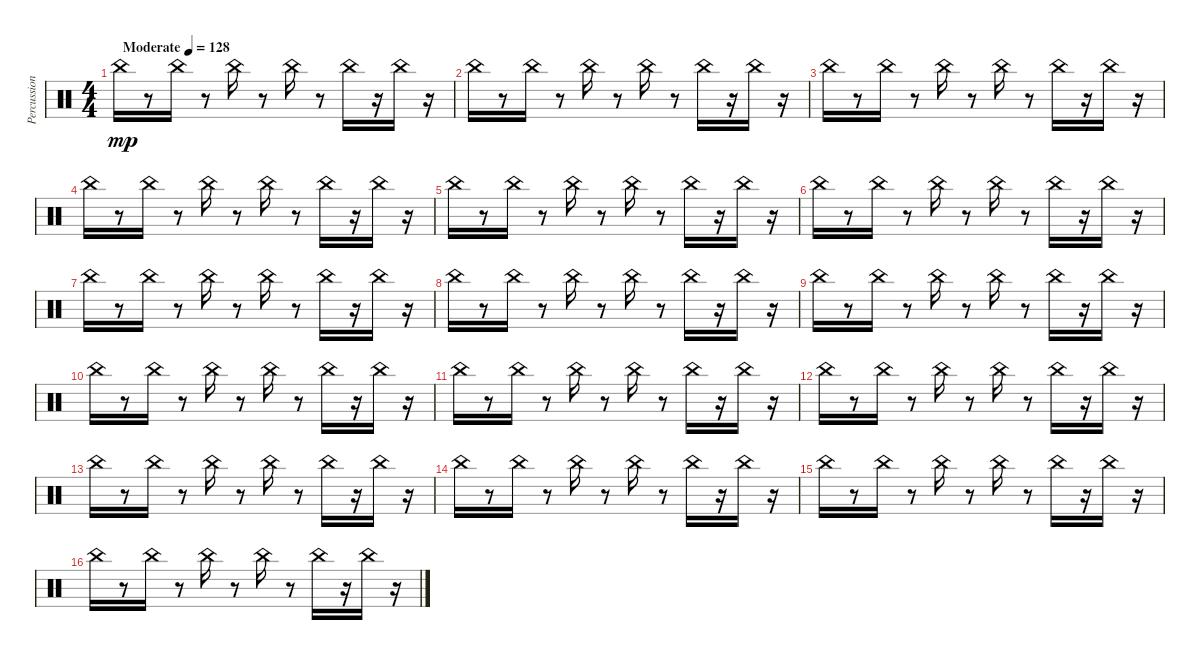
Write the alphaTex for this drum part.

\track ("Percussion 'Sin'" "Percussion") {instrument percussion}
\staff {score}
\articulation defaults
\ts (4 4)
\tempo (128 "Moderate")
\clef neutral
\ks c "China (hit)".16{dy mp}
r.8 "China (hit)".16 r.8 "China (hit)".16 r.8 "China (hit)".16 r.8 "China (hit)".16 r.16 "China (hit)".16 r.16 |
"China (hit)".16 r.8 "China (hit)".16 r.8 "China (hit)".16 r.8 "China (hit)".16 r.8 "China (hit)".16 r.16 "China (hit)".16 r.16 |
"China (hit)".16 r.8 "China (hit)".16 r.8 "China (hit)".16 r.8 "China (hit)".16 r.8 "China (hit)".16 r.16 "China (hit)".16 r.16 |
"China (hit)".16 r.8 "China (hit)".16 r.8 "China (hit)".16 r.8 "China (hit)".16 r.8 "China (hit)".16 r.16 "China (hit)".16 r.16 |
"China (hit)".16 r.8 "China (hit)".16 r.8 "China (hit)".16 r.8 "China (hit)".16 r.8 "China (hit)".16 r.16 "China (hit)".16 r.16 |
"China (hit)".16 r.8 "China (hit)".16 r.8 "China (hit)".16 r.8 "China (hit)".16 r.8 "China (hit)".16 r.16 "China (hit)".16 r.16 |
"China (hit)".16 r.8 "China (hit)".16 r.8 "China (hit)".16 r.8 "China (hit)".16 r.8 "China (hit)".16 r.16 "China (hit)".16 r.16 |
"China (hit)".16 r.8 "China (hit)".16 r.8 "China (hit)".16 r.8 "China (hit)".16 r.8 "China (hit)".16 r.16 "China (hit)".16 r.16 |
"China (hit)".16 r.8 "China (hit)".16 r.8 "China (hit)".16 r.8 "China (hit)".16 r.8 "China (hit)".16 r.16 "China (hit)".16 r.16 |
"China (hit)".16 r.8 "China (hit)".16 r.8 "China (hit)".16 r.8 "China (hit)".16 r.8 "China (hit)".16 r.16 "China (hit)".16 r.16 |
"China (hit)".16 r.8 "China (hit)".16 r.8 "China (hit)".16 r.8 "China (hit)".16 r.8 "China (hit)".16 r.16 "China (hit)".16 r.16 |
"China (hit)".16 r.8 "China (hit)".16 r.8 "China (hit)".16 r.8 "China (hit)".16 r.8 "China (hit)".16 r.16 "China (hit)".16 r.16 |
"China (hit)".16 r.8 "China (hit)".16 r.8 "China (hit)".16 r.8 "China (hit)".16 r.8 "China (hit)".16 r.16 "China (hit)".16 r.16 |
"China (hit)".16 r.8 "China (hit)".16 r.8 "China (hit)".16 r.8 "China (hit)".16 r.8 "China (hit)".16 r.16 "China (hit)".16 r.16 |
"China (hit)".16 r.8 "China (hit)".16 r.8 "China (hit)".16 r.8 "China (hit)".16 r.8 "China (hit)".16 r.16 "China (hit)".16 r.16 |
"China (hit)".16 r.8 "China (hit)".16 r.8 "China (hit)".16 r.8 "China (hit)".16 r.8 "China (hit)".16 r.16 "China (hit)".16 r.16
